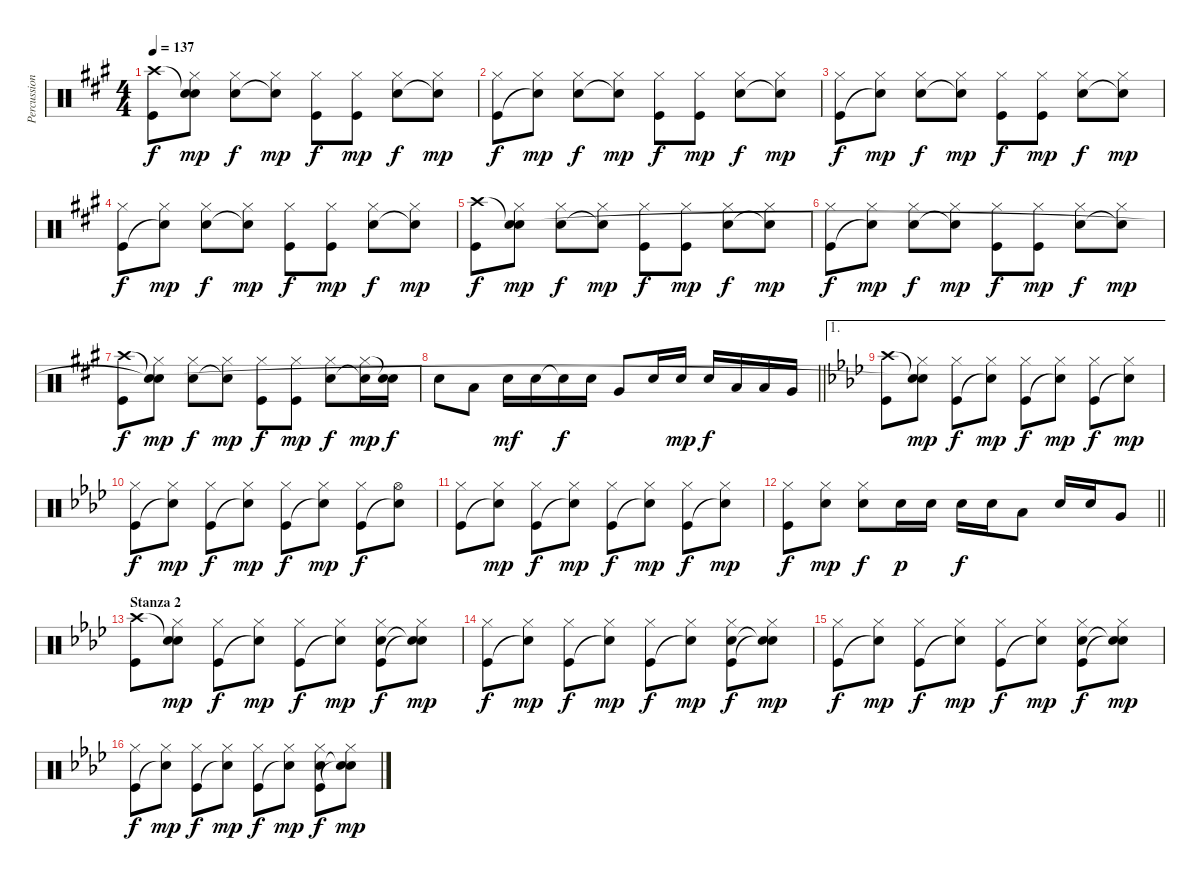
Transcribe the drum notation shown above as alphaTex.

\track ("Percussion" "Percussion") {instrument percussion}
\staff {score}
\articulation defaults
\ts (4 4)
\tempo 137
\clef neutral
\ks a
("Crash high (hit)" "Kick (hit)").8{dy f} ("Snare (hit)"{t} "Hi-Hat (closed)" "Snare (hit)"{t}).8{dy mp} ("Hi-Hat (closed)" "Electric Snare (hit)").8{dy f} ("Hi-Hat (closed)" "Snare (hit)"{t}).8{dy mp} ("Hi-Hat (closed)" "Kick (hit)").8{dy f} ("Hi-Hat (closed)" "Kick (hit)").8{dy mp} ("Hi-Hat (closed)" "Electric Snare (hit)").8{dy f} ("Hi-Hat (closed)" "Snare (hit)"{t}).8{dy mp} |
("Hi-Hat (closed)" "Kick (hit)").8{dy f} ("Hi-Hat (closed)" "Snare (hit)"{t}).8{dy mp} ("Hi-Hat (closed)" "Electric Snare (hit)").8{dy f} ("Hi-Hat (closed)" "Snare (hit)"{t}).8{dy mp} ("Hi-Hat (closed)" "Kick (hit)").8{dy f} ("Hi-Hat (closed)" "Kick (hit)").8{dy mp} ("Hi-Hat (closed)" "Electric Snare (hit)").8{dy f} ("Hi-Hat (closed)" "Snare (hit)"{t}).8{dy mp} |
("Hi-Hat (closed)" "Kick (hit)").8{dy f} ("Hi-Hat (closed)" "Snare (hit)"{t}).8{dy mp} ("Hi-Hat (closed)" "Electric Snare (hit)").8{dy f} ("Hi-Hat (closed)" "Snare (hit)"{t}).8{dy mp} ("Hi-Hat (closed)" "Kick (hit)").8{dy f} ("Hi-Hat (closed)" "Kick (hit)").8{dy mp} ("Hi-Hat (closed)" "Electric Snare (hit)").8{dy f} ("Hi-Hat (closed)" "Snare (hit)"{t}).8{dy mp} |
("Hi-Hat (closed)" "Kick (hit)").8{dy f} ("Hi-Hat (closed)" "Snare (hit)"{t}).8{dy mp} ("Hi-Hat (closed)" "Electric Snare (hit)").8{dy f} ("Hi-Hat (closed)" "Snare (hit)"{t}).8{dy mp} ("Hi-Hat (closed)" "Kick (hit)").8{dy f} ("Hi-Hat (closed)" "Kick (hit)").8{dy mp} ("Hi-Hat (closed)" "Electric Snare (hit)").8{dy f} ("Hi-Hat (closed)" "Snare (hit)"{t}).8{dy mp} |
("Crash high (hit)" "Kick (hit)").8{dy f} ("Snare (hit)"{t} "Hi-Hat (closed)" "Snare (hit)").8{dy mp} ("Hi-Hat (closed)" "Electric Snare (hit)").8{dy f} ("Hi-Hat (closed)" "Snare (hit)"{t}).8{dy mp} ("Hi-Hat (closed)" "Kick (hit)").8{dy f} ("Hi-Hat (closed)" "Kick (hit)").8{dy mp} ("Hi-Hat (closed)" "Electric Snare (hit)").8{dy f} ("Hi-Hat (closed)" "Snare (hit)"{t}).8{dy mp} |
("Hi-Hat (closed)" "Kick (hit)").8{dy f} ("Hi-Hat (closed)" "Snare (hit)"{t}).8{dy mp} ("Hi-Hat (closed)" "Electric Snare (hit)").8{dy f} ("Hi-Hat (closed)" "Snare (hit)"{t}).8{dy mp} ("Hi-Hat (closed)" "Kick (hit)").8{dy f} ("Hi-Hat (closed)" "Kick (hit)").8{dy mp} ("Hi-Hat (closed)" "Electric Snare (hit)").8{dy f} ("Hi-Hat (closed)" "Snare (hit)"{t}).8{dy mp} |
("Crash high (hit)" "Kick (hit)").8{dy f} ("Snare (hit)"{t} "Hi-Hat (closed)" "Snare (hit)"{t}).8{dy mp} ("Hi-Hat (closed)" "Electric Snare (hit)").8{dy f} ("Hi-Hat (closed)" "Snare (hit)"{t}).8{dy mp} ("Hi-Hat (closed)" "Kick (hit)").8{dy f} ("Hi-Hat (closed)" "Kick (hit)").8{dy mp} ("Hi-Hat (closed)" "Electric Snare (hit)").8{dy f} ("Hi-Hat (closed)" "Electric Snare (hit)"{t}).16{dy mp} ("Snare (hit)"{t} "Electric Snare (hit)").16{dy f} |
\barLineRight lightlight "Electric Snare (hit)".8 "Low Tom (hit)".8 "Electric Snare (hit)".16{dy mf} "Electric Snare (hit)".16 "Electric Snare (hit)"{t}.16{dy f} "Electric Snare (hit)".16 "Very Low Tom (hit)".8 "Electric Snare (hit)".16 "Electric Snare (hit)".16{dy mp} "Electric Snare (hit)".16{dy f} "Low Tom (hit)".16 "Low Tom (hit)".16 "Very Low Tom (hit)".16
|
\ae 1
\ks ab
("Crash high (hit)" "Kick (hit)").8 ("Snare (hit)"{t} "Hi-Hat (closed)" "Snare (hit)"{t}).8{dy mp} ("Hi-Hat (closed)" "Kick (hit)").8{dy f} ("Hi-Hat (closed)" "Snare (hit)"{t}).8{dy mp} ("Hi-Hat (closed)" "Kick (hit)").8{dy f} ("Hi-Hat (closed)" "Snare (hit)"{t}).8{dy mp} ("Hi-Hat (closed)" "Kick (hit)").8{dy f} ("Hi-Hat (closed)" "Snare (hit)"{t}).8{dy mp} |
("Hi-Hat (closed)" "Kick (hit)").8{dy f} ("Hi-Hat (closed)" "Snare (hit)"{t}).8{dy mp} ("Hi-Hat (closed)" "Kick (hit)").8{dy f} ("Hi-Hat (closed)" "Snare (hit)"{t}).8{dy mp} ("Hi-Hat (closed)" "Kick (hit)").8{dy f} ("Hi-Hat (closed)" "Snare (hit)"{t}).8{dy mp} ("Hi-Hat (closed)" "Kick (hit)").8{dy f} ("Hi-Hat (open)" "Snare (hit)"{t}).8 |
("Hi-Hat (closed)" "Kick (hit)").8 ("Hi-Hat (closed)" "Snare (hit)"{t}).8{dy mp} ("Hi-Hat (closed)" "Kick (hit)").8{dy f} ("Hi-Hat (closed)" "Snare (hit)"{t}).8{dy mp} ("Hi-Hat (closed)" "Kick (hit)").8{dy f} ("Hi-Hat (closed)" "Snare (hit)"{t}).8{dy mp} ("Hi-Hat (closed)" "Kick (hit)").8{dy f} ("Hi-Hat (closed)" "Snare (hit)"{t}).8{dy mp} |
\barLineRight lightlight
("Hi-Hat (closed)" "Kick (hit)").8{dy f} ("Hi-Hat (closed)" "Electric Snare (hit)").8{dy mp} ("Hi-Hat (closed)" "Electric Snare (hit)").8{dy f} "Electric Snare (hit)".16{dy p} "Electric Snare (hit)".16 "Electric Snare (hit)".16{dy f} "Electric Snare (hit)".16 "Low Tom (hit)".8 "Electric Snare (hit)".16 "Electric Snare (hit)".16 "Very Low Tom (hit)".8 |
\section ("" "Stanza 2")
("Crash high (hit)" "Kick (hit)").8 ("Snare (hit)"{t} "Hi-Hat (closed)" "Snare (hit)").8{dy mp} ("Hi-Hat (closed)" "Kick (hit)").8{dy f} ("Hi-Hat (closed)" "Snare (hit)"{t}).8{dy mp} ("Hi-Hat (closed)" "Kick (hit)").8{dy f} ("Hi-Hat (closed)" "Snare (hit)"{t}).8{dy mp} ("Hi-Hat (closed)" "Electric Snare (hit)" "Kick (hit)").8{dy f} ("Hi-Hat (closed)" "Snare (hit)"{t} "Snare (hit)"{t}).8{dy mp} |
("Hi-Hat (closed)" "Kick (hit)").8{dy f} ("Hi-Hat (closed)" "Snare (hit)"{t}).8{dy mp} ("Hi-Hat (closed)" "Kick (hit)").8{dy f} ("Hi-Hat (closed)" "Snare (hit)"{t}).8{dy mp} ("Hi-Hat (closed)" "Kick (hit)").8{dy f} ("Hi-Hat (closed)" "Snare (hit)"{t}).8{dy mp} ("Hi-Hat (closed)" "Electric Snare (hit)" "Kick (hit)").8{dy f} ("Hi-Hat (closed)" "Snare (hit)"{t} "Snare (hit)"{t}).8{dy mp} |
("Hi-Hat (closed)" "Kick (hit)").8{dy f} ("Hi-Hat (closed)" "Snare (hit)"{t}).8{dy mp} ("Hi-Hat (closed)" "Kick (hit)").8{dy f} ("Hi-Hat (closed)" "Snare (hit)"{t}).8{dy mp} ("Hi-Hat (closed)" "Kick (hit)").8{dy f} ("Hi-Hat (closed)" "Snare (hit)"{t}).8{dy mp} ("Hi-Hat (closed)" "Electric Snare (hit)" "Kick (hit)").8{dy f} ("Hi-Hat (closed)" "Snare (hit)"{t} "Snare (hit)"{t}).8{dy mp} |
("Hi-Hat (closed)" "Kick (hit)").8{dy f} ("Hi-Hat (closed)" "Snare (hit)"{t}).8{dy mp} ("Hi-Hat (closed)" "Kick (hit)").8{dy f} ("Hi-Hat (closed)" "Snare (hit)"{t}).8{dy mp} ("Hi-Hat (closed)" "Kick (hit)").8{dy f} ("Hi-Hat (closed)" "Snare (hit)"{t}).8{dy mp} ("Hi-Hat (closed)" "Electric Snare (hit)" "Kick (hit)").8{dy f} ("Hi-Hat (closed)" "Snare (hit)"{t} "Snare (hit)"{t}).8{dy mp}
